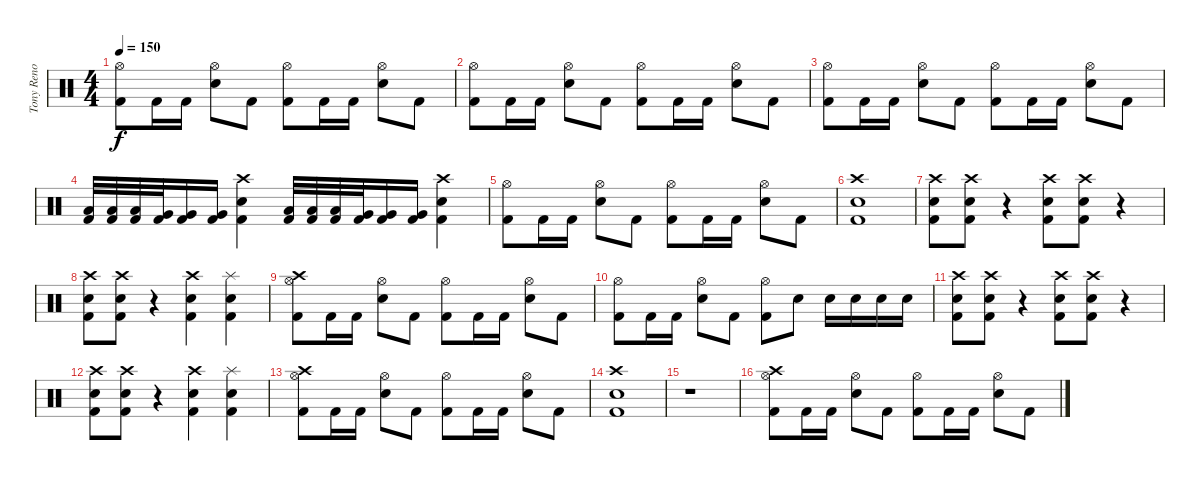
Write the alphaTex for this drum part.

\track ("Tony Reno" "Tony Reno") {instrument percussion}
\staff {score}
\articulation defaults
\ts (4 4)
\tempo 150
\clef neutral
\ks c
("Kick (hit) 2" "Hi-Hat (open)").8{dy f} "Kick (hit) 2".16 "Kick (hit) 2".16 ("Snare (hit) 2" "Hi-Hat (open)").8 "Kick (hit) 2".8 ("Kick (hit) 2" "Hi-Hat (open)").8 "Kick (hit) 2".16 "Kick (hit) 2".16 ("Snare (hit) 2" "Hi-Hat (open)").8 "Kick (hit) 2".8 |
("Kick (hit) 2" "Hi-Hat (open)").8 "Kick (hit) 2".16 "Kick (hit) 2".16 ("Snare (hit) 2" "Hi-Hat (open)").8 "Kick (hit) 2".8 ("Kick (hit) 2" "Hi-Hat (open)").8 "Kick (hit) 2".16 "Kick (hit) 2".16 ("Snare (hit) 2" "Hi-Hat (open)").8 "Kick (hit) 2".8 |
("Kick (hit) 2" "Hi-Hat (open)").8 "Kick (hit) 2".16 "Kick (hit) 2".16 ("Snare (hit) 2" "Hi-Hat (open)").8 "Kick (hit) 2".8 ("Kick (hit) 2" "Hi-Hat (open)").8 "Kick (hit) 2".16 "Kick (hit) 2".16 ("Snare (hit) 2" "Hi-Hat (open)").8 "Kick (hit) 2".8 |
("Kick (hit) 2" "Low Tom (hit)").32 ("Kick (hit) 2" "Low Tom (hit)").32 ("Kick (hit) 2" "Low Tom (hit)").32 ("Kick (hit) 2" "Very Low Tom (hit)").32 ("Kick (hit) 2" "Very Low Tom (hit)").16 ("Kick (hit) 2" "Very Low Tom (hit)").16 ("Snare (hit) 2" "Crash high (hit)" "Kick (hit) 2").4 ("Kick (hit) 2" "Low Tom (hit)").32 ("Kick (hit) 2" "Low Tom (hit)").32 ("Kick (hit) 2" "Low Tom (hit)").32 ("Kick (hit) 2" "Very Low Tom (hit)").32 ("Kick (hit) 2" "Very Low Tom (hit)").16 ("Kick (hit) 2" "Very Low Tom (hit)").16 ("Snare (hit) 2" "Crash high (hit)" "Kick (hit) 2").4 |
("Kick (hit) 2" "Hi-Hat (open)").8 "Kick (hit) 2".16 "Kick (hit) 2".16 ("Snare (hit) 2" "Hi-Hat (open)").8 "Kick (hit) 2".8 ("Kick (hit) 2" "Hi-Hat (open)").8 "Kick (hit) 2".16 "Kick (hit) 2".16 ("Snare (hit) 2" "Hi-Hat (open)").8 "Kick (hit) 2".8 |
("Kick (hit) 2" "Snare (hit) 2" "Crash high (hit)").1 |
("Kick (hit) 2" "Snare (hit) 2" "Crash high (hit)").8 ("Kick (hit) 2" "Snare (hit) 2" "Crash high (hit)").8 r.4 ("Kick (hit) 2" "Snare (hit) 2" "Crash high (hit)").8 ("Kick (hit) 2" "Snare (hit) 2" "Crash high (hit)").8 r.4 |
("Kick (hit) 2" "Snare (hit) 2" "Crash high (hit)").8 ("Kick (hit) 2" "Snare (hit) 2" "Crash high (hit)").8 r.4 ("Kick (hit) 2" "Snare (hit) 2" "Crash high (hit)").4 ("Kick (hit) 2" "Snare (hit) 2" "Splash (hit)").4 |
("Kick (hit) 2" "Hi-Hat (open)" "Crash high (hit)").8 "Kick (hit) 2".16 "Kick (hit) 2".16 ("Snare (hit) 2" "Hi-Hat (open)").8 "Kick (hit) 2".8 ("Kick (hit) 2" "Hi-Hat (open)").8 "Kick (hit) 2".16 "Kick (hit) 2".16 ("Snare (hit) 2" "Hi-Hat (open)").8 "Kick (hit) 2".8 |
("Kick (hit) 2" "Hi-Hat (open)").8 "Kick (hit) 2".16 "Kick (hit) 2".16 ("Snare (hit) 2" "Hi-Hat (open)").8 "Kick (hit) 2".8 ("Kick (hit) 2" "Hi-Hat (open)").8 "Snare (hit) 2".8 "Snare (hit) 2".16 "Snare (hit) 2".16 "Snare (hit) 2".16 "Snare (hit) 2".16 |
("Kick (hit) 2" "Snare (hit) 2" "Crash high (hit)").8 ("Kick (hit) 2" "Snare (hit) 2" "Crash high (hit)").8 r.4 ("Kick (hit) 2" "Snare (hit) 2" "Crash high (hit)").8 ("Kick (hit) 2" "Snare (hit) 2" "Crash high (hit)").8 r.4 |
("Kick (hit) 2" "Snare (hit) 2" "Crash high (hit)").8 ("Kick (hit) 2" "Snare (hit) 2" "Crash high (hit)").8 r.4 ("Kick (hit) 2" "Snare (hit) 2" "Crash high (hit)").4 ("Kick (hit) 2" "Snare (hit) 2" "Splash (hit)").4 |
("Kick (hit) 2" "Hi-Hat (open)" "Crash high (hit)").8 "Kick (hit) 2".16 "Kick (hit) 2".16 ("Snare (hit) 2" "Hi-Hat (open)").8 "Kick (hit) 2".8 ("Kick (hit) 2" "Hi-Hat (open)").8 "Kick (hit) 2".16 "Kick (hit) 2".16 ("Snare (hit) 2" "Hi-Hat (open)").8 "Kick (hit) 2".8 |
("Kick (hit) 2" "Snare (hit) 2" "Crash high (hit)").1 |
r.1 |
("Kick (hit) 2" "Hi-Hat (open)" "Crash high (hit)").8 "Kick (hit) 2".16 "Kick (hit) 2".16 ("Snare (hit) 2" "Hi-Hat (open)").8 "Kick (hit) 2".8 ("Kick (hit) 2" "Hi-Hat (open)").8 "Kick (hit) 2".16 "Kick (hit) 2".16 ("Snare (hit) 2" "Hi-Hat (open)").8 "Kick (hit) 2".8
